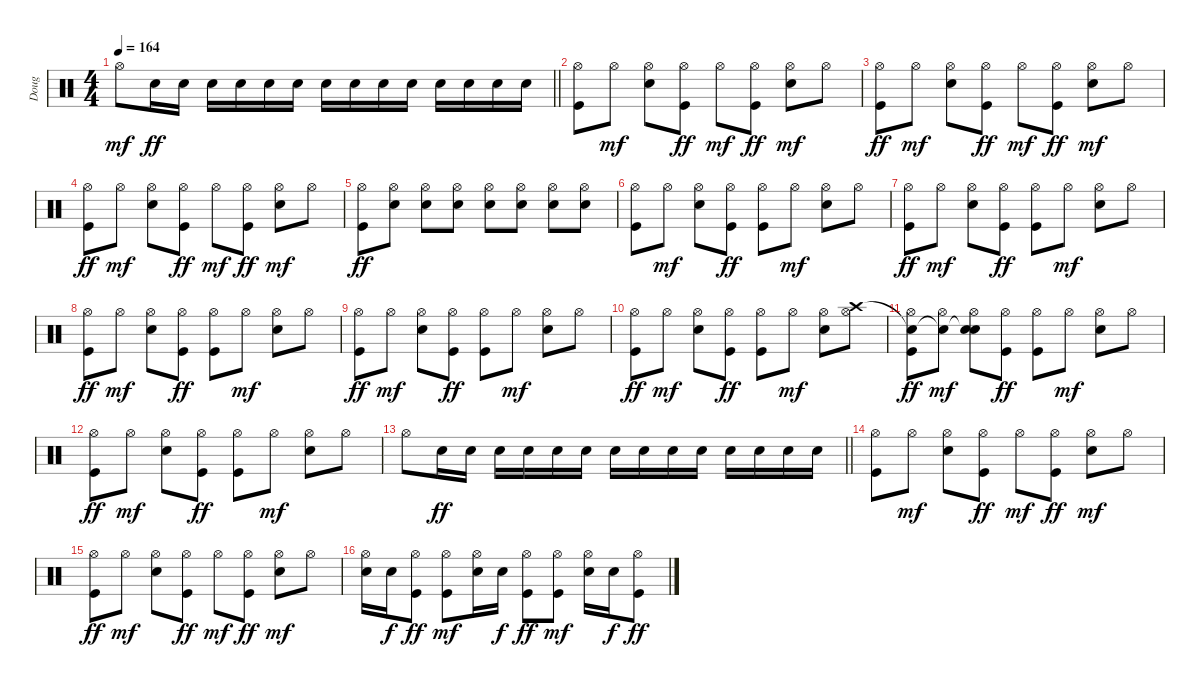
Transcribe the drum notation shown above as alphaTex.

\track ("Doug" "Doug") {instrument percussion}
\staff {score}
\articulation defaults
\ts (4 4)
\tempo 164
\clef neutral
\barLineRight lightlight
\ks c "Hi-Hat (open)".8{dy mf} "Electric Snare (hit)".16{dy ff} "Electric Snare (hit)".16 "Electric Snare (hit)".16 "Electric Snare (hit)".16 "Electric Snare (hit)".16 "Electric Snare (hit)".16 "Electric Snare (hit)".16 "Electric Snare (hit)".16 "Electric Snare (hit)".16 "Electric Snare (hit)".16 "Electric Snare (hit)".16 "Electric Snare (hit)".16 "Electric Snare (hit)".16 "Electric Snare (hit)".16
|
("Hi-Hat (open)" "Kick (hit)").8 "Hi-Hat (open)".8{dy mf} ("Hi-Hat (open)" "Electric Snare (hit)").8 ("Hi-Hat (open)" "Kick (hit)").8{dy ff} "Hi-Hat (open)".8{dy mf} ("Hi-Hat (open)" "Kick (hit)").8{dy ff} ("Hi-Hat (open)" "Electric Snare (hit)").8{dy mf} "Hi-Hat (open)".8 |
("Hi-Hat (open)" "Kick (hit)").8{dy ff} "Hi-Hat (open)".8{dy mf} ("Hi-Hat (open)" "Electric Snare (hit)").8 ("Hi-Hat (open)" "Kick (hit)").8{dy ff} "Hi-Hat (open)".8{dy mf} ("Hi-Hat (open)" "Kick (hit)").8{dy ff} ("Hi-Hat (open)" "Electric Snare (hit)").8{dy mf} "Hi-Hat (open)".8 |
("Hi-Hat (open)" "Kick (hit)").8{dy ff} "Hi-Hat (open)".8{dy mf} ("Hi-Hat (open)" "Electric Snare (hit)").8 ("Hi-Hat (open)" "Kick (hit)").8{dy ff} "Hi-Hat (open)".8{dy mf} ("Hi-Hat (open)" "Kick (hit)").8{dy ff} ("Hi-Hat (open)" "Electric Snare (hit)").8{dy mf} "Hi-Hat (open)".8 |
("Hi-Hat (open)" "Kick (hit)").8{dy ff} ("Hi-Hat (open)" "Electric Snare (hit)").8 ("Hi-Hat (open)" "Electric Snare (hit)").8 ("Hi-Hat (open)" "Electric Snare (hit)").8 ("Hi-Hat (open)" "Electric Snare (hit)").8 ("Hi-Hat (open)" "Electric Snare (hit)").8 ("Hi-Hat (open)" "Electric Snare (hit)").8 ("Hi-Hat (open)" "Electric Snare (hit)").8 |
("Hi-Hat (open)" "Kick (hit)").8 "Hi-Hat (open)".8{dy mf} ("Hi-Hat (open)" "Electric Snare (hit)").8 ("Hi-Hat (open)" "Kick (hit)").8{dy ff} ("Hi-Hat (open)" "Kick (hit)").8 "Hi-Hat (open)".8{dy mf} ("Hi-Hat (open)" "Electric Snare (hit)").8 "Hi-Hat (open)".8 |
("Hi-Hat (open)" "Kick (hit)").8{dy ff} "Hi-Hat (open)".8{dy mf} ("Hi-Hat (open)" "Electric Snare (hit)").8 ("Hi-Hat (open)" "Kick (hit)").8{dy ff} ("Hi-Hat (open)" "Kick (hit)").8 "Hi-Hat (open)".8{dy mf} ("Hi-Hat (open)" "Electric Snare (hit)").8 "Hi-Hat (open)".8 |
("Hi-Hat (open)" "Kick (hit)").8{dy ff} "Hi-Hat (open)".8{dy mf} ("Hi-Hat (open)" "Electric Snare (hit)").8 ("Hi-Hat (open)" "Kick (hit)").8{dy ff} ("Hi-Hat (open)" "Kick (hit)").8 "Hi-Hat (open)".8{dy mf} ("Hi-Hat (open)" "Electric Snare (hit)").8 "Hi-Hat (open)".8 |
("Hi-Hat (open)" "Kick (hit)").8{dy ff} "Hi-Hat (open)".8{dy mf} ("Hi-Hat (open)" "Electric Snare (hit)").8 ("Hi-Hat (open)" "Kick (hit)").8{dy ff} ("Hi-Hat (open)" "Kick (hit)").8 "Hi-Hat (open)".8{dy mf} ("Hi-Hat (open)" "Electric Snare (hit)").8 "Hi-Hat (open)".8 |
("Hi-Hat (open)" "Kick (hit)").8{dy ff} "Hi-Hat (open)".8{dy mf} ("Hi-Hat (open)" "Electric Snare (hit)").8 ("Hi-Hat (open)" "Kick (hit)").8{dy ff} ("Hi-Hat (open)" "Kick (hit)").8 "Hi-Hat (open)".8{dy mf} ("Hi-Hat (open)" "Electric Snare (hit)").8 ("Crash high (hit)" "Hi-Hat (open)").8 |
("Snare (hit)"{t} "Hi-Hat (open)" "Kick (hit)").8{dy ff} ("Snare (hit)"{t} "Hi-Hat (open)").8{dy mf} ("Snare (hit)"{t} "Hi-Hat (open)" "Electric Snare (hit)").8 ("Hi-Hat (open)" "Kick (hit)").8{dy ff} ("Hi-Hat (open)" "Kick (hit)").8 "Hi-Hat (open)".8{dy mf} ("Hi-Hat (open)" "Electric Snare (hit)").8 "Hi-Hat (open)".8 |
("Hi-Hat (open)" "Kick (hit)").8{dy ff} "Hi-Hat (open)".8{dy mf} ("Hi-Hat (open)" "Electric Snare (hit)").8 ("Hi-Hat (open)" "Kick (hit)").8{dy ff} ("Hi-Hat (open)" "Kick (hit)").8 "Hi-Hat (open)".8{dy mf} ("Hi-Hat (open)" "Electric Snare (hit)").8 "Hi-Hat (open)".8 |
\barLineRight lightlight "Hi-Hat (open)".8 "Electric Snare (hit)".16{dy ff} "Electric Snare (hit)".16 "Electric Snare (hit)".16 "Electric Snare (hit)".16 "Electric Snare (hit)".16 "Electric Snare (hit)".16 "Electric Snare (hit)".16 "Electric Snare (hit)".16 "Electric Snare (hit)".16 "Electric Snare (hit)".16 "Electric Snare (hit)".16 "Electric Snare (hit)".16 "Electric Snare (hit)".16 "Electric Snare (hit)".16
|
("Hi-Hat (open)" "Kick (hit)").8 "Hi-Hat (open)".8{dy mf} ("Hi-Hat (open)" "Electric Snare (hit)").8 ("Hi-Hat (open)" "Kick (hit)").8{dy ff} "Hi-Hat (open)".8{dy mf} ("Hi-Hat (open)" "Kick (hit)").8{dy ff} ("Hi-Hat (open)" "Electric Snare (hit)").8{dy mf} "Hi-Hat (open)".8 |
("Hi-Hat (open)" "Kick (hit)").8{dy ff} "Hi-Hat (open)".8{dy mf} ("Hi-Hat (open)" "Electric Snare (hit)").8 ("Hi-Hat (open)" "Kick (hit)").8{dy ff} "Hi-Hat (open)".8{dy mf} ("Hi-Hat (open)" "Kick (hit)").8{dy ff} ("Hi-Hat (open)" "Electric Snare (hit)").8{dy mf} "Hi-Hat (open)".8 |
("Hi-Hat (open)" "Electric Snare (hit)").16 "Electric Snare (hit)".16{dy f} ("Hi-Hat (open)" "Kick (hit)").8{dy ff} ("Hi-Hat (open)" "Kick (hit)").8{dy mf} ("Hi-Hat (open)" "Electric Snare (hit)").16 "Electric Snare (hit)".16{dy f} ("Hi-Hat (open)" "Kick (hit)").8{dy ff} ("Hi-Hat (open)" "Kick (hit)").8{dy mf} ("Hi-Hat (open)" "Electric Snare (hit)").16 "Electric Snare (hit)".16{dy f} ("Hi-Hat (open)" "Kick (hit)").8{dy ff}
